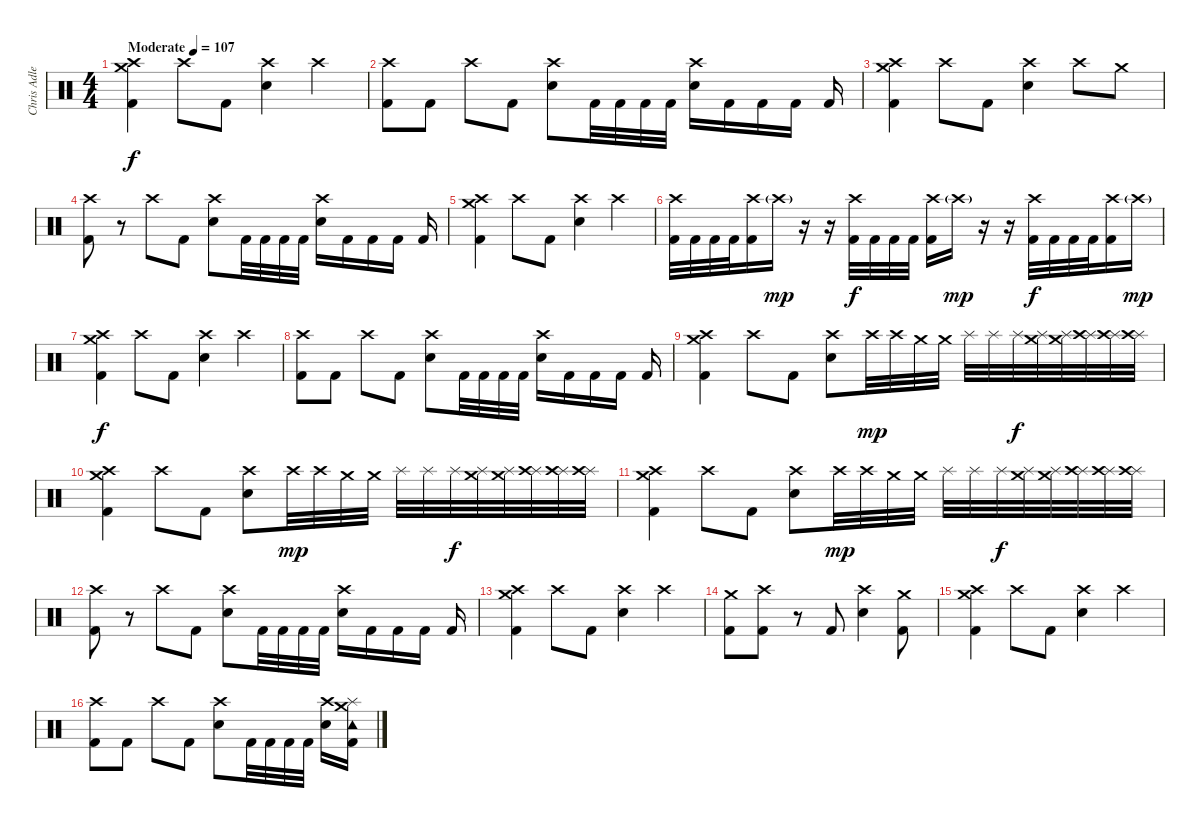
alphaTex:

\track ("Chris Adler" "Chris Adle") {instrument percussion}
\staff {score}
\articulation defaults
\ts (4 4)
\tempo (107 "Moderate")
\clef neutral
\ks c
("Kick (hit) 2" "Crash high (hit)" "Crash medium (hit)").4{dy f} "Crash high (hit)".8 "Kick (hit) 2".8 ("Electric Snare (hit)" "Crash high (hit)").4 "Crash high (hit)".4 |
("Kick (hit) 2" "Crash high (hit)").8 "Kick (hit) 2".8 "Crash high (hit)".8 "Kick (hit) 2".8 ("Electric Snare (hit)" "Crash high (hit)").8 "Kick (hit) 2".32 "Kick (hit) 2".32 "Kick (hit) 2".32 "Kick (hit) 2".32 ("Electric Snare (hit)" "Crash high (hit)").16 "Kick (hit) 2".16 "Kick (hit) 2".16 "Kick (hit) 2".16 "Kick (hit) 2".16 |
("Kick (hit) 2" "Crash high (hit)" "Crash medium (hit)").4 "Crash high (hit)".8 "Kick (hit) 2".8 ("Electric Snare (hit)" "Crash high (hit)").4 "Crash high (hit)".8 "Crash medium (hit)".8 |
("Kick (hit) 2" "Crash high (hit)").8 r.8 "Crash high (hit)".8 "Kick (hit) 2".8 ("Electric Snare (hit)" "Crash high (hit)").8 "Kick (hit) 2".32 "Kick (hit) 2".32 "Kick (hit) 2".32 "Kick (hit) 2".32 ("Electric Snare (hit)" "Crash high (hit)").16 "Kick (hit) 2".16 "Kick (hit) 2".16 "Kick (hit) 2".16 "Kick (hit) 2".16 |
("Kick (hit) 2" "Crash high (hit)" "Crash medium (hit)").4 "Crash high (hit)".8 "Kick (hit) 2".8 ("Electric Snare (hit)" "Crash high (hit)").4 "Crash high (hit)".4 |
("Kick (hit) 2" "Crash high (hit)").32 "Kick (hit) 2".32 "Kick (hit) 2".32 "Kick (hit) 2".32 ("Kick (hit) 2" "Crash high (hit)").16 "Crash high (hit)"{g}.16{dy mp} r.16 r.16 ("Kick (hit) 2" "Crash high (hit)").32{dy f} "Kick (hit) 2".32 "Kick (hit) 2".32 "Kick (hit) 2".32 ("Kick (hit) 2" "Crash high (hit)").16 "Crash high (hit)"{g}.16{dy mp} r.16 r.16 ("Kick (hit) 2" "Crash high (hit)").32{dy f} "Kick (hit) 2".32 "Kick (hit) 2".32 "Kick (hit) 2".32 ("Kick (hit) 2" "Crash high (hit)").16 "Crash high (hit)"{g}.16{dy mp} |
("Kick (hit) 2" "Crash high (hit)" "Crash medium (hit)").4{dy f} "Crash high (hit)".8 "Kick (hit) 2".8 ("Electric Snare (hit)" "Crash high (hit)").4 "Crash high (hit)".4 |
("Kick (hit) 2" "Crash high (hit)").8 "Kick (hit) 2".8 "Crash high (hit)".8 "Kick (hit) 2".8 ("Electric Snare (hit)" "Crash high (hit)").8 "Kick (hit) 2".32 "Kick (hit) 2".32 "Kick (hit) 2".32 "Kick (hit) 2".32 ("Electric Snare (hit)" "Crash high (hit)").16 "Kick (hit) 2".16 "Kick (hit) 2".16 "Kick (hit) 2".16 "Kick (hit) 2".16 |
("Kick (hit) 2" "Crash high (hit)" "Crash medium (hit)").4 "Crash high (hit)".8 "Kick (hit) 2".8 ("Electric Snare (hit)" "Crash high (hit)").8 "Crash high (hit)".32{dy mp} "Crash high (hit)".32 "Crash medium (hit)".32 "Crash medium (hit)".32 "Splash (hit)".32 "Splash (hit)".32 "Splash (hit)".32{dy f} ("Splash (hit)" "Crash medium (hit)").32 ("Splash (hit)" "Crash medium (hit)").32 ("Splash (hit)" "Crash high (hit)").32 ("Splash (hit)" "Crash high (hit)").32 ("Splash (hit)" "Crash high (hit)").32 |
("Kick (hit) 2" "Crash high (hit)" "Crash medium (hit)").4 "Crash high (hit)".8 "Kick (hit) 2".8 ("Electric Snare (hit)" "Crash high (hit)").8 "Crash high (hit)".32{dy mp} "Crash high (hit)".32 "Crash medium (hit)".32 "Crash medium (hit)".32 "Splash (hit)".32 "Splash (hit)".32 "Splash (hit)".32{dy f} ("Splash (hit)" "Crash medium (hit)").32 ("Splash (hit)" "Crash medium (hit)").32 ("Splash (hit)" "Crash high (hit)").32 ("Splash (hit)" "Crash high (hit)").32 ("Splash (hit)" "Crash high (hit)").32 |
("Kick (hit) 2" "Crash high (hit)" "Crash medium (hit)").4 "Crash high (hit)".8 "Kick (hit) 2".8 ("Electric Snare (hit)" "Crash high (hit)").8 "Crash high (hit)".32{dy mp} "Crash high (hit)".32 "Crash medium (hit)".32 "Crash medium (hit)".32 "Splash (hit)".32 "Splash (hit)".32 "Splash (hit)".32{dy f} ("Splash (hit)" "Crash medium (hit)").32 ("Splash (hit)" "Crash medium (hit)").32 ("Splash (hit)" "Crash high (hit)").32 ("Splash (hit)" "Crash high (hit)").32 ("Splash (hit)" "Crash high (hit)").32 |
("Kick (hit) 2" "Crash high (hit)").8 r.8 "Crash high (hit)".8 "Kick (hit) 2".8 ("Electric Snare (hit)" "Crash high (hit)").8 "Kick (hit) 2".32 "Kick (hit) 2".32 "Kick (hit) 2".32 "Kick (hit) 2".32 ("Electric Snare (hit)" "Crash high (hit)").16 "Kick (hit) 2".16 "Kick (hit) 2".16 "Kick (hit) 2".16 "Kick (hit) 2".16 |
("Kick (hit) 2" "Crash high (hit)" "Crash medium (hit)").4 "Crash high (hit)".8 "Kick (hit) 2".8 ("Electric Snare (hit)" "Crash high (hit)").4 "Crash high (hit)".4 |
("Kick (hit) 2" "Crash medium (hit)").8 ("Kick (hit) 2" "Crash high (hit)").8 r.8 "Kick (hit) 2".8 ("Electric Snare (hit)" "Crash high (hit)").4 ("Kick (hit) 2" "Crash medium (hit)").8 |
("Kick (hit) 2" "Crash high (hit)" "Crash medium (hit)").4 "Crash high (hit)".8 "Kick (hit) 2".8 ("Electric Snare (hit)" "Crash high (hit)").4 "Crash high (hit)".4 |
("Kick (hit) 2" "Crash high (hit)").8 "Kick (hit) 2".8 "Crash high (hit)".8 "Kick (hit) 2".8 ("Electric Snare (hit)" "Crash high (hit)").8 "Kick (hit) 2".32 "Kick (hit) 2".32 "Kick (hit) 2".32 "Kick (hit) 2".32 ("Electric Snare (hit)" "Crash high (hit)").16 ("Kick (hit) 2" "Splash (hit)" "Tambourine (hit)" "Crash medium (hit)").16
